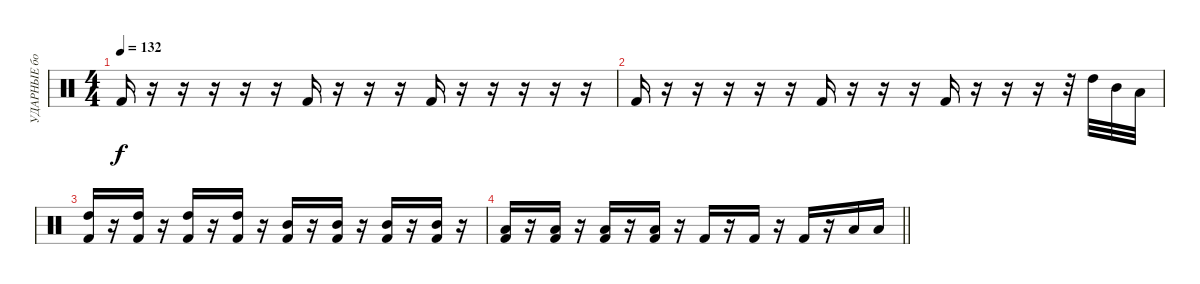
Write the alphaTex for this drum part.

\track ("УДАРНЫЕ бочка" "УДАРНЫЕ бо") {instrument percussion}
\staff {score}
\articulation defaults
\ts (4 4)
\tempo 132
\clef neutral
\ks c "Kick (hit) 2".16{dy f}
r.16 r.16 r.16 r.16 r.16 "Kick (hit) 2".16 r.16 r.16 r.16 "Kick (hit) 2".16 r.16 r.16 r.16 r.16 r.16 |
"Kick (hit) 2".16 r.16 r.16 r.16 r.16 r.16 "Kick (hit) 2".16 r.16 r.16 r.16 "Kick (hit) 2".16 r.16 r.16 r.16 r.32 "High Tom (hit)".32 "Mid Tom (hit)".32 "Low Tom (hit)".32 |
("Kick (hit) 2" "High Tom (hit)").16 r.16 ("Kick (hit) 2" "High Tom (hit)").16 r.16 ("Kick (hit) 2" "High Tom (hit)").16 r.16 ("Kick (hit) 2" "High Tom (hit)").16 r.16 ("Kick (hit) 2" "Mid Tom (hit)").16 r.16 ("Kick (hit) 2" "Mid Tom (hit)").16 r.16 ("Kick (hit) 2" "Mid Tom (hit)").16 r.16 ("Kick (hit) 2" "Mid Tom (hit)").16 r.16 |
\barLineRight lightlight
("Kick (hit) 2" "Low Tom (hit)").16 r.16 ("Kick (hit) 2" "Low Tom (hit)").16 r.16 ("Kick (hit) 2" "Low Tom (hit)").16 r.16 ("Kick (hit) 2" "Low Tom (hit)").16 r.16 "Kick (hit) 2".16 r.16 "Kick (hit) 2".16 r.16 "Kick (hit) 2".16 r.16 "Low Tom (hit)".16 "Low Tom (hit)".16
